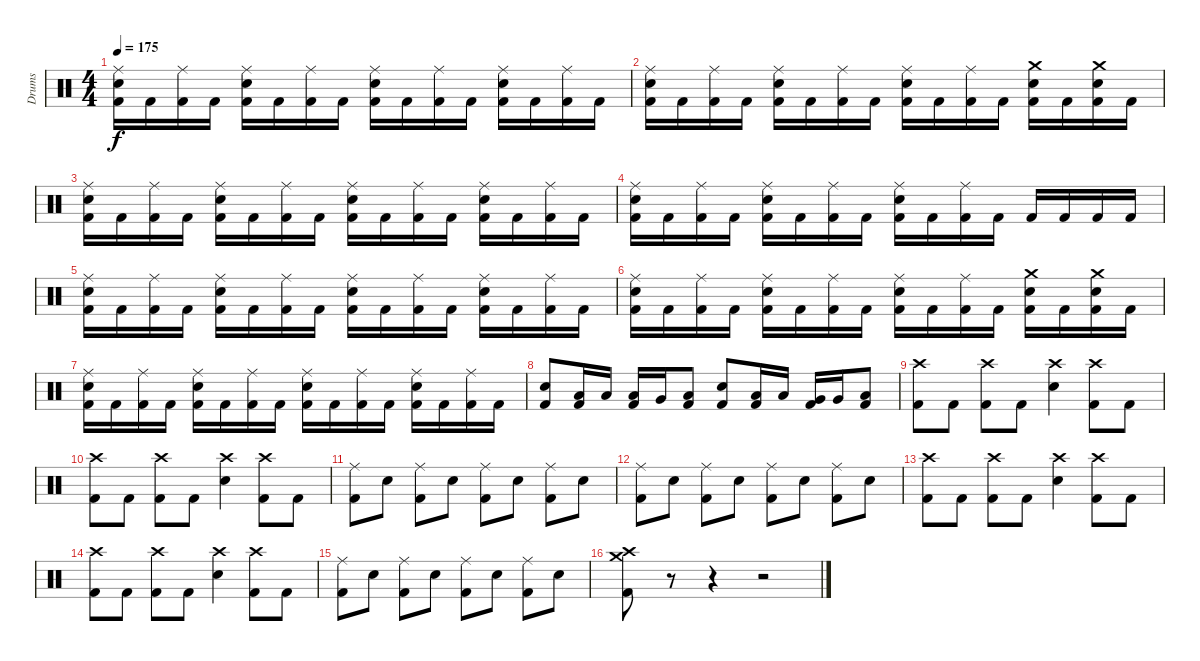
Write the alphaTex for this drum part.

\track ("Drums" "Drums") {instrument percussion}
\staff {score}
\articulation defaults
\ts (4 4)
\tempo 175
\clef neutral
\ks c
("Ride (middle)" "Snare (hit) 2" "Kick (hit) 2").16{dy f} "Kick (hit) 2".16 ("Ride (middle)" "Kick (hit) 2").16 "Kick (hit) 2".16 ("Ride (middle)" "Snare (hit) 2" "Kick (hit) 2").16 "Kick (hit) 2".16 ("Ride (middle)" "Kick (hit) 2").16 "Kick (hit) 2".16 ("Ride (middle)" "Snare (hit) 2" "Kick (hit) 2").16 "Kick (hit) 2".16 ("Ride (middle)" "Kick (hit) 2").16 "Kick (hit) 2".16 ("Ride (middle)" "Snare (hit) 2" "Kick (hit) 2").16 "Kick (hit) 2".16 ("Ride (middle)" "Kick (hit) 2").16 "Kick (hit) 2".16 |
("Ride (middle)" "Snare (hit) 2" "Kick (hit) 2").16 "Kick (hit) 2".16 ("Ride (middle)" "Kick (hit) 2").16 "Kick (hit) 2".16 ("Ride (middle)" "Snare (hit) 2" "Kick (hit) 2").16 "Kick (hit) 2".16 ("Ride (middle)" "Kick (hit) 2").16 "Kick (hit) 2".16 ("Ride (middle)" "Snare (hit) 2" "Kick (hit) 2").16 "Kick (hit) 2".16 ("Ride (middle)" "Kick (hit) 2").16 "Kick (hit) 2".16 ("Crash medium (hit)" "Snare (hit) 2" "Kick (hit) 2").16 "Kick (hit) 2".16 ("Crash medium (hit)" "Snare (hit) 2" "Kick (hit) 2").16 "Kick (hit) 2".16 |
("Ride (middle)" "Snare (hit) 2" "Kick (hit) 2").16 "Kick (hit) 2".16 ("Ride (middle)" "Kick (hit) 2").16 "Kick (hit) 2".16 ("Ride (middle)" "Snare (hit) 2" "Kick (hit) 2").16 "Kick (hit) 2".16 ("Ride (middle)" "Kick (hit) 2").16 "Kick (hit) 2".16 ("Ride (middle)" "Snare (hit) 2" "Kick (hit) 2").16 "Kick (hit) 2".16 ("Ride (middle)" "Kick (hit) 2").16 "Kick (hit) 2".16 ("Ride (middle)" "Snare (hit) 2" "Kick (hit) 2").16 "Kick (hit) 2".16 ("Ride (middle)" "Kick (hit) 2").16 "Kick (hit) 2".16 |
("Ride (middle)" "Snare (hit) 2" "Kick (hit) 2").16 "Kick (hit) 2".16 ("Ride (middle)" "Kick (hit) 2").16 "Kick (hit) 2".16 ("Ride (middle)" "Snare (hit) 2" "Kick (hit) 2").16 "Kick (hit) 2".16 ("Ride (middle)" "Kick (hit) 2").16 "Kick (hit) 2".16 ("Ride (middle)" "Snare (hit) 2" "Kick (hit) 2").16 "Kick (hit) 2".16 ("Ride (middle)" "Kick (hit) 2").16 "Kick (hit) 2".16 "Kick (hit) 2".16 "Kick (hit) 2".16 "Kick (hit) 2".16 "Kick (hit) 2".16 |
("Ride (middle)" "Snare (hit) 2" "Kick (hit) 2").16 "Kick (hit) 2".16 ("Ride (middle)" "Kick (hit) 2").16 "Kick (hit) 2".16 ("Ride (middle)" "Snare (hit) 2" "Kick (hit) 2").16 "Kick (hit) 2".16 ("Ride (middle)" "Kick (hit) 2").16 "Kick (hit) 2".16 ("Ride (middle)" "Snare (hit) 2" "Kick (hit) 2").16 "Kick (hit) 2".16 ("Ride (middle)" "Kick (hit) 2").16 "Kick (hit) 2".16 ("Ride (middle)" "Snare (hit) 2" "Kick (hit) 2").16 "Kick (hit) 2".16 ("Ride (middle)" "Kick (hit) 2").16 "Kick (hit) 2".16 |
("Ride (middle)" "Snare (hit) 2" "Kick (hit) 2").16 "Kick (hit) 2".16 ("Ride (middle)" "Kick (hit) 2").16 "Kick (hit) 2".16 ("Ride (middle)" "Snare (hit) 2" "Kick (hit) 2").16 "Kick (hit) 2".16 ("Ride (middle)" "Kick (hit) 2").16 "Kick (hit) 2".16 ("Ride (middle)" "Snare (hit) 2" "Kick (hit) 2").16 "Kick (hit) 2".16 ("Ride (middle)" "Kick (hit) 2").16 "Kick (hit) 2".16 ("Crash medium (hit)" "Snare (hit) 2" "Kick (hit) 2").16 "Kick (hit) 2".16 ("Crash medium (hit)" "Snare (hit) 2" "Kick (hit) 2").16 "Kick (hit) 2".16 |
("Ride (middle)" "Snare (hit) 2" "Kick (hit) 2").16 "Kick (hit) 2".16 ("Ride (middle)" "Kick (hit) 2").16 "Kick (hit) 2".16 ("Ride (middle)" "Snare (hit) 2" "Kick (hit) 2").16 "Kick (hit) 2".16 ("Ride (middle)" "Kick (hit) 2").16 "Kick (hit) 2".16 ("Ride (middle)" "Snare (hit) 2" "Kick (hit) 2").16 "Kick (hit) 2".16 ("Ride (middle)" "Kick (hit) 2").16 "Kick (hit) 2".16 ("Ride (middle)" "Snare (hit) 2" "Kick (hit) 2").16 "Kick (hit) 2".16 ("Ride (middle)" "Kick (hit) 2").16 "Kick (hit) 2".16 |
("Snare (hit) 2" "Kick (hit) 2").8 ("Low Tom (hit)" "Kick (hit) 2").16 "Low Tom (hit)".16 ("Low Tom (hit)" "Kick (hit) 2").16 "Very Low Tom (hit)".16 ("Low Tom (hit)" "Kick (hit) 2").8 ("Snare (hit) 2" "Kick (hit) 2").8 ("Low Tom (hit)" "Kick (hit) 2").16 "Low Tom (hit)".16 ("Very Low Tom (hit)" "Kick (hit) 2").16 "Very Low Tom (hit)".16 ("Low Tom (hit)" "Kick (hit) 2").8 |
("Crash high (hit)" "Kick (hit) 2").8 "Kick (hit) 2".8 ("Crash high (hit)" "Kick (hit) 2").8 "Kick (hit) 2".8 ("Crash high (hit)" "Snare (hit) 2").4 ("Crash high (hit)" "Kick (hit) 2").8 "Kick (hit) 2".8 |
("Crash high (hit)" "Kick (hit) 2").8 "Kick (hit) 2".8 ("Crash high (hit)" "Kick (hit) 2").8 "Kick (hit) 2".8 ("Crash high (hit)" "Snare (hit) 2").4 ("Crash high (hit)" "Kick (hit) 2").8 "Kick (hit) 2".8 |
("Ride (middle)" "Kick (hit) 2").8 "Snare (hit) 2".8 ("Ride (middle)" "Kick (hit) 2").8 "Snare (hit) 2".8 ("Ride (middle)" "Kick (hit) 2").8 "Snare (hit) 2".8 ("Ride (middle)" "Kick (hit) 2").8 "Snare (hit) 2".8 |
("Ride (middle)" "Kick (hit) 2").8 "Snare (hit) 2".8 ("Ride (middle)" "Kick (hit) 2").8 "Snare (hit) 2".8 ("Ride (middle)" "Kick (hit) 2").8 "Snare (hit) 2".8 ("Ride (middle)" "Kick (hit) 2").8 "Snare (hit) 2".8 |
("Crash high (hit)" "Kick (hit) 2").8 "Kick (hit) 2".8 ("Crash high (hit)" "Kick (hit) 2").8 "Kick (hit) 2".8 ("Crash high (hit)" "Snare (hit) 2").4 ("Crash high (hit)" "Kick (hit) 2").8 "Kick (hit) 2".8 |
("Crash high (hit)" "Kick (hit) 2").8 "Kick (hit) 2".8 ("Crash high (hit)" "Kick (hit) 2").8 "Kick (hit) 2".8 ("Crash high (hit)" "Snare (hit) 2").4 ("Crash high (hit)" "Kick (hit) 2").8 "Kick (hit) 2".8 |
("Ride (middle)" "Kick (hit) 2").8 "Snare (hit) 2".8 ("Ride (middle)" "Kick (hit) 2").8 "Snare (hit) 2".8 ("Ride (middle)" "Kick (hit) 2").8 "Snare (hit) 2".8 ("Ride (middle)" "Kick (hit) 2").8 "Snare (hit) 2".8 |
("Crash medium (hit)" "Crash high (hit)" "Kick (hit) 2").8 r.8 r.4 r.2
